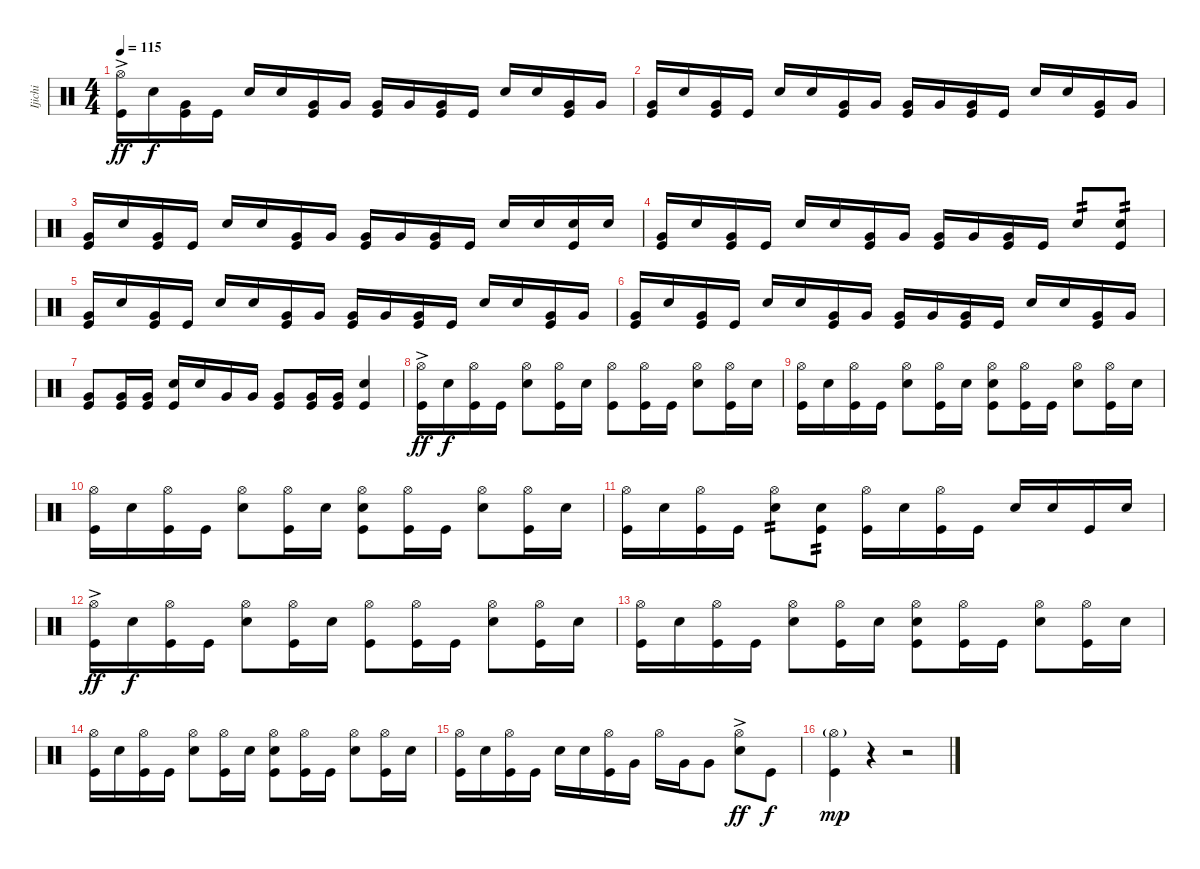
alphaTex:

\track ("Ijichi" "Ijichi") {instrument percussion}
\staff {score}
\articulation defaults
\ts (4 4)
\tempo 115
\clef neutral
\ks c
("Hi-Hat (open)"{ac} "Kick (hit)").16{dy ff} "Snare (hit) 2".16{dy f} ("Very Low Tom (hit)" "Kick (hit)").16 "Kick (hit)".16 "Snare (hit) 2".16 "Snare (hit) 2".16 ("Very Low Tom (hit)" "Kick (hit)").16 "Very Low Tom (hit)".16 ("Very Low Tom (hit)" "Kick (hit)").16 "Very Low Tom (hit)".16 ("Very Low Tom (hit)" "Kick (hit)").16 "Kick (hit)".16 "Snare (hit) 2".16 "Snare (hit) 2".16 ("Very Low Tom (hit)" "Kick (hit)").16 "Very Low Tom (hit)".16 |
("Very Low Tom (hit)" "Kick (hit)").16 "Snare (hit) 2".16 ("Very Low Tom (hit)" "Kick (hit)").16 "Kick (hit)".16 "Snare (hit) 2".16 "Snare (hit) 2".16 ("Very Low Tom (hit)" "Kick (hit)").16 "Very Low Tom (hit)".16 ("Very Low Tom (hit)" "Kick (hit)").16 "Very Low Tom (hit)".16 ("Very Low Tom (hit)" "Kick (hit)").16 "Kick (hit)".16 "Snare (hit) 2".16 "Snare (hit) 2".16 ("Very Low Tom (hit)" "Kick (hit)").16 "Very Low Tom (hit)".16 |
("Very Low Tom (hit)" "Kick (hit)").16 "Snare (hit) 2".16 ("Very Low Tom (hit)" "Kick (hit)").16 "Kick (hit)".16 "Snare (hit) 2".16 "Snare (hit) 2".16 ("Very Low Tom (hit)" "Kick (hit)").16 "Very Low Tom (hit)".16 ("Very Low Tom (hit)" "Kick (hit)").16 "Very Low Tom (hit)".16 ("Very Low Tom (hit)" "Kick (hit)").16 "Kick (hit)".16 "Snare (hit) 2".16 "Snare (hit) 2".16 ("Snare (hit) 2" "Kick (hit)").16 "Snare (hit) 2".16 |
("Very Low Tom (hit)" "Kick (hit)").16 "Snare (hit) 2".16 ("Very Low Tom (hit)" "Kick (hit)").16 "Kick (hit)".16 "Snare (hit) 2".16 "Snare (hit) 2".16 ("Very Low Tom (hit)" "Kick (hit)").16 "Very Low Tom (hit)".16 ("Very Low Tom (hit)" "Kick (hit)").16 "Very Low Tom (hit)".16 ("Very Low Tom (hit)" "Kick (hit)").16 "Kick (hit)".16 "Snare (hit) 2".8{tp 2} ("Snare (hit) 2" "Kick (hit)").8{tp 2} |
("Very Low Tom (hit)" "Kick (hit)").16 "Snare (hit) 2".16 ("Very Low Tom (hit)" "Kick (hit)").16 "Kick (hit)".16 "Snare (hit) 2".16 "Snare (hit) 2".16 ("Very Low Tom (hit)" "Kick (hit)").16 "Very Low Tom (hit)".16 ("Very Low Tom (hit)" "Kick (hit)").16 "Very Low Tom (hit)".16 ("Very Low Tom (hit)" "Kick (hit)").16 "Kick (hit)".16 "Snare (hit) 2".16 "Snare (hit) 2".16 ("Very Low Tom (hit)" "Kick (hit)").16 "Very Low Tom (hit)".16 |
("Very Low Tom (hit)" "Kick (hit)").16 "Snare (hit) 2".16 ("Very Low Tom (hit)" "Kick (hit)").16 "Kick (hit)".16 "Snare (hit) 2".16 "Snare (hit) 2".16 ("Very Low Tom (hit)" "Kick (hit)").16 "Very Low Tom (hit)".16 ("Very Low Tom (hit)" "Kick (hit)").16 "Very Low Tom (hit)".16 ("Very Low Tom (hit)" "Kick (hit)").16 "Kick (hit)".16 "Snare (hit) 2".16 "Snare (hit) 2".16 ("Very Low Tom (hit)" "Kick (hit)").16 "Very Low Tom (hit)".16 |
("Very Low Tom (hit)" "Kick (hit)").8 ("Very Low Tom (hit)" "Kick (hit)").16 ("Very Low Tom (hit)" "Kick (hit)").16 ("Snare (hit) 2" "Kick (hit)").16 "Snare (hit) 2".16 "Very Low Tom (hit)".16 "Very Low Tom (hit)".16 ("Very Low Tom (hit)" "Kick (hit)").8 ("Very Low Tom (hit)" "Kick (hit)").16 ("Very Low Tom (hit)" "Kick (hit)").16 ("Snare (hit) 2" "Kick (hit)").4 |
("Hi-Hat (open)"{ac} "Kick (hit)").16{dy ff} "Snare (hit) 2".16{dy f} ("Hi-Hat (open)" "Kick (hit)").16 "Kick (hit)".16 ("Hi-Hat (open)" "Snare (hit) 2").8 ("Hi-Hat (open)" "Kick (hit)").16 "Snare (hit) 2".16 ("Hi-Hat (open)" "Kick (hit)").8 ("Hi-Hat (open)" "Kick (hit)").16 "Kick (hit)".16 ("Hi-Hat (open)" "Snare (hit) 2").8 ("Hi-Hat (open)" "Kick (hit)").16 "Snare (hit) 2".16 |
("Hi-Hat (open)" "Kick (hit)").16 "Snare (hit) 2".16 ("Hi-Hat (open)" "Kick (hit)").16 "Kick (hit)".16 ("Hi-Hat (open)" "Snare (hit) 2").8 ("Hi-Hat (open)" "Kick (hit)").16 "Snare (hit) 2".16 ("Hi-Hat (open)" "Snare (hit) 2" "Kick (hit)").8 ("Hi-Hat (open)" "Kick (hit)").16 "Kick (hit)".16 ("Hi-Hat (open)" "Snare (hit) 2").8 ("Hi-Hat (open)" "Kick (hit)").16 "Snare (hit) 2".16 |
("Hi-Hat (open)" "Kick (hit)").16 "Snare (hit) 2".16 ("Hi-Hat (open)" "Kick (hit)").16 "Kick (hit)".16 ("Hi-Hat (open)" "Snare (hit) 2").8 ("Hi-Hat (open)" "Kick (hit)").16 "Snare (hit) 2".16 ("Hi-Hat (open)" "Snare (hit) 2" "Kick (hit)").8 ("Hi-Hat (open)" "Kick (hit)").16 "Kick (hit)".16 ("Hi-Hat (open)" "Snare (hit) 2").8 ("Hi-Hat (open)" "Kick (hit)").16 "Snare (hit) 2".16 |
("Hi-Hat (open)" "Kick (hit)").16 "Snare (hit) 2".16 ("Hi-Hat (open)" "Kick (hit)").16 "Kick (hit)".16 ("Hi-Hat (open)" "Snare (hit) 2").8{tp 2} ("Snare (hit) 2" "Kick (hit)").8{tp 2} ("Hi-Hat (open)" "Kick (hit)").16 "Snare (hit) 2".16 ("Hi-Hat (open)" "Kick (hit)").16 "Kick (hit)".16 "Snare (hit) 2".16 "Snare (hit) 2".16 "Kick (hit)".16 "Snare (hit) 2".16 |
("Hi-Hat (open)"{ac} "Kick (hit)").16{dy ff} "Snare (hit) 2".16{dy f} ("Hi-Hat (open)" "Kick (hit)").16 "Kick (hit)".16 ("Hi-Hat (open)" "Snare (hit) 2").8 ("Hi-Hat (open)" "Kick (hit)").16 "Snare (hit) 2".16 ("Hi-Hat (open)" "Kick (hit)").8 ("Hi-Hat (open)" "Kick (hit)").16 "Kick (hit)".16 ("Hi-Hat (open)" "Snare (hit) 2").8 ("Hi-Hat (open)" "Kick (hit)").16 "Snare (hit) 2".16 |
("Hi-Hat (open)" "Kick (hit)").16 "Snare (hit) 2".16 ("Hi-Hat (open)" "Kick (hit)").16 "Kick (hit)".16 ("Hi-Hat (open)" "Snare (hit) 2").8 ("Hi-Hat (open)" "Kick (hit)").16 "Snare (hit) 2".16 ("Hi-Hat (open)" "Snare (hit) 2" "Kick (hit)").8 ("Hi-Hat (open)" "Kick (hit)").16 "Kick (hit)".16 ("Hi-Hat (open)" "Snare (hit) 2").8 ("Hi-Hat (open)" "Kick (hit)").16 "Snare (hit) 2".16 |
("Hi-Hat (open)" "Kick (hit)").16 "Snare (hit) 2".16 ("Hi-Hat (open)" "Kick (hit)").16 "Kick (hit)".16 ("Hi-Hat (open)" "Snare (hit) 2").8 ("Hi-Hat (open)" "Kick (hit)").16 "Snare (hit) 2".16 ("Hi-Hat (open)" "Snare (hit) 2" "Kick (hit)").8 ("Hi-Hat (open)" "Kick (hit)").16 "Kick (hit)".16 ("Hi-Hat (open)" "Snare (hit) 2").8 ("Hi-Hat (open)" "Kick (hit)").16 "Snare (hit) 2".16 |
("Hi-Hat (open)" "Kick (hit)").16 "Snare (hit) 2".16 ("Hi-Hat (open)" "Kick (hit)").16 "Kick (hit)".16 "Snare (hit) 2".16 "Snare (hit) 2".16 ("Hi-Hat (open)" "Kick (hit)").16 "Very Low Tom (hit)".16 "Hi-Hat (open)".16 "Very Low Tom (hit)".16 "Very Low Tom (hit)".8 ("Hi-Hat (open)"{ac} "Snare (hit) 2").8{dy ff} "Kick (hit)".8{dy f} |
("Hi-Hat (open)"{g} "Kick (hit)").4{dy mp} r.4 r.2
